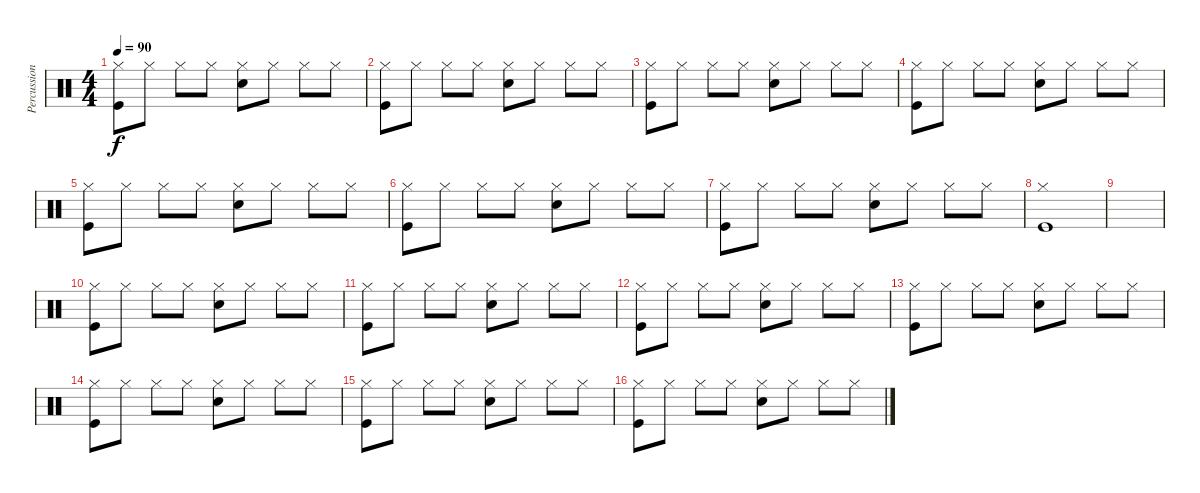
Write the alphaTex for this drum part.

\track ("Percussioni" "Percussion") {instrument percussion}
\staff {score}
\articulation defaults
\ts (4 4)
\tempo 90
\clef neutral
\ks c
("Hi-Hat (closed)" "Kick (hit)").8{dy f} "Hi-Hat (closed)".8 "Hi-Hat (closed)".8 "Hi-Hat (closed)".8 ("Hi-Hat (closed)" "Snare (hit) 2").8 "Hi-Hat (closed)".8 "Hi-Hat (closed)".8 "Hi-Hat (closed)".8 |
("Hi-Hat (closed)" "Kick (hit)").8 "Hi-Hat (closed)".8 "Hi-Hat (closed)".8 "Hi-Hat (closed)".8 ("Hi-Hat (closed)" "Snare (hit) 2").8 "Hi-Hat (closed)".8 "Hi-Hat (closed)".8 "Hi-Hat (closed)".8 |
("Hi-Hat (closed)" "Kick (hit)").8 "Hi-Hat (closed)".8 "Hi-Hat (closed)".8 "Hi-Hat (closed)".8 ("Hi-Hat (closed)" "Snare (hit) 2").8 "Hi-Hat (closed)".8 "Hi-Hat (closed)".8 "Hi-Hat (closed)".8 |
("Hi-Hat (closed)" "Kick (hit)").8 "Hi-Hat (closed)".8 "Hi-Hat (closed)".8 "Hi-Hat (closed)".8 ("Hi-Hat (closed)" "Snare (hit) 2").8 "Hi-Hat (closed)".8 "Hi-Hat (closed)".8 "Hi-Hat (closed)".8 |
("Hi-Hat (closed)" "Kick (hit)").8 "Hi-Hat (closed)".8 "Hi-Hat (closed)".8 "Hi-Hat (closed)".8 ("Hi-Hat (closed)" "Snare (hit) 2").8 "Hi-Hat (closed)".8 "Hi-Hat (closed)".8 "Hi-Hat (closed)".8 |
("Hi-Hat (closed)" "Kick (hit)").8 "Hi-Hat (closed)".8 "Hi-Hat (closed)".8 "Hi-Hat (closed)".8 ("Hi-Hat (closed)" "Snare (hit) 2").8 "Hi-Hat (closed)".8 "Hi-Hat (closed)".8 "Hi-Hat (closed)".8 |
("Hi-Hat (closed)" "Kick (hit)").8 "Hi-Hat (closed)".8 "Hi-Hat (closed)".8 "Hi-Hat (closed)".8 ("Hi-Hat (closed)" "Snare (hit) 2").8 "Hi-Hat (closed)".8 "Hi-Hat (closed)".8 "Hi-Hat (closed)".8 |
("Kick (hit)" "Hi-Hat (closed)").1 |
|
("Hi-Hat (closed)" "Kick (hit)").8 "Hi-Hat (closed)".8 "Hi-Hat (closed)".8 "Hi-Hat (closed)".8 ("Hi-Hat (closed)" "Snare (hit) 2").8 "Hi-Hat (closed)".8 "Hi-Hat (closed)".8 "Hi-Hat (closed)".8 |
("Hi-Hat (closed)" "Kick (hit)").8 "Hi-Hat (closed)".8 "Hi-Hat (closed)".8 "Hi-Hat (closed)".8 ("Hi-Hat (closed)" "Snare (hit) 2").8 "Hi-Hat (closed)".8 "Hi-Hat (closed)".8 "Hi-Hat (closed)".8 |
("Hi-Hat (closed)" "Kick (hit)").8 "Hi-Hat (closed)".8 "Hi-Hat (closed)".8 "Hi-Hat (closed)".8 ("Hi-Hat (closed)" "Snare (hit) 2").8 "Hi-Hat (closed)".8 "Hi-Hat (closed)".8 "Hi-Hat (closed)".8 |
("Hi-Hat (closed)" "Kick (hit)").8 "Hi-Hat (closed)".8 "Hi-Hat (closed)".8 "Hi-Hat (closed)".8 ("Hi-Hat (closed)" "Snare (hit) 2").8 "Hi-Hat (closed)".8 "Hi-Hat (closed)".8 "Hi-Hat (closed)".8 |
("Hi-Hat (closed)" "Kick (hit)").8 "Hi-Hat (closed)".8 "Hi-Hat (closed)".8 "Hi-Hat (closed)".8 ("Hi-Hat (closed)" "Snare (hit) 2").8 "Hi-Hat (closed)".8 "Hi-Hat (closed)".8 "Hi-Hat (closed)".8 |
("Hi-Hat (closed)" "Kick (hit)").8 "Hi-Hat (closed)".8 "Hi-Hat (closed)".8 "Hi-Hat (closed)".8 ("Hi-Hat (closed)" "Snare (hit) 2").8 "Hi-Hat (closed)".8 "Hi-Hat (closed)".8 "Hi-Hat (closed)".8 |
("Hi-Hat (closed)" "Kick (hit)").8 "Hi-Hat (closed)".8 "Hi-Hat (closed)".8 "Hi-Hat (closed)".8 ("Hi-Hat (closed)" "Snare (hit) 2").8 "Hi-Hat (closed)".8 "Hi-Hat (closed)".8 "Hi-Hat (closed)".8
